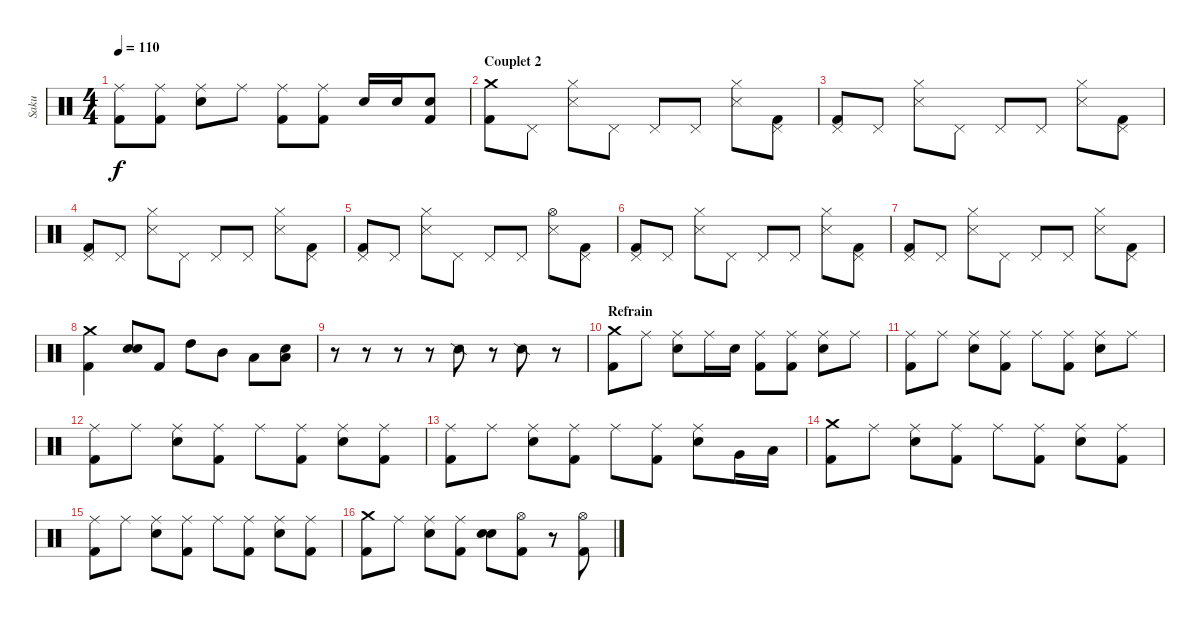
\track ("Saku" "Saku") {instrument percussion}
\staff {score}
\articulation defaults
\ts (4 4)
\tempo 110
\clef neutral
\ks c
("Ride (middle)" "Kick (hit) 2").8{dy f} ("Ride (middle)" "Kick (hit) 2").8 ("Ride (middle)" "Electric Snare (hit)").8 "Ride (middle)".8 ("Ride (middle)" "Kick (hit) 2").8 ("Ride (middle)" "Kick (hit) 2").8 "Electric Snare (hit)".16 "Electric Snare (hit)".16 ("Electric Snare (hit)" "Kick (hit) 2").8 |
\section ("" "Couplet 2")
("Crash medium (hit)" "Kick (hit) 2").8 "Pedal Hi-Hat (hit)".8 ("Hi-Hat (closed)" "Snare (side stick) 3").8 "Pedal Hi-Hat (hit)".8 "Pedal Hi-Hat (hit)".8 "Pedal Hi-Hat (hit)".8 ("Hi-Hat (closed)" "Snare (side stick) 3").8 ("Pedal Hi-Hat (hit)" "Kick (hit) 2").8 |
("Pedal Hi-Hat (hit)" "Kick (hit) 2").8 "Pedal Hi-Hat (hit)".8 ("Hi-Hat (closed)" "Snare (side stick) 3").8 "Pedal Hi-Hat (hit)".8 "Pedal Hi-Hat (hit)".8 "Pedal Hi-Hat (hit)".8 ("Hi-Hat (closed)" "Snare (side stick) 3").8 ("Pedal Hi-Hat (hit)" "Kick (hit) 2").8 |
("Pedal Hi-Hat (hit)" "Kick (hit) 2").8 "Pedal Hi-Hat (hit)".8 ("Hi-Hat (closed)" "Snare (side stick) 3").8 "Pedal Hi-Hat (hit)".8 "Pedal Hi-Hat (hit)".8 "Pedal Hi-Hat (hit)".8 ("Hi-Hat (closed)" "Snare (side stick) 3").8 ("Pedal Hi-Hat (hit)" "Kick (hit) 2").8 |
("Pedal Hi-Hat (hit)" "Kick (hit) 2").8 "Pedal Hi-Hat (hit)".8 ("Hi-Hat (closed)" "Snare (side stick) 3").8 "Pedal Hi-Hat (hit)".8 "Pedal Hi-Hat (hit)".8 "Pedal Hi-Hat (hit)".8 ("Hi-Hat (open)" "Snare (side stick) 3").8 ("Pedal Hi-Hat (hit)" "Kick (hit) 2").8 |
("Pedal Hi-Hat (hit)" "Kick (hit) 2").8 "Pedal Hi-Hat (hit)".8 ("Hi-Hat (closed)" "Snare (side stick) 3").8 "Pedal Hi-Hat (hit)".8 "Pedal Hi-Hat (hit)".8 "Pedal Hi-Hat (hit)".8 ("Hi-Hat (closed)" "Snare (side stick) 3").8 ("Pedal Hi-Hat (hit)" "Kick (hit) 2").8 |
("Pedal Hi-Hat (hit)" "Kick (hit) 2").8 "Pedal Hi-Hat (hit)".8 ("Hi-Hat (closed)" "Snare (side stick) 3").8 "Pedal Hi-Hat (hit)".8 "Pedal Hi-Hat (hit)".8 "Pedal Hi-Hat (hit)".8 ("Hi-Hat (closed)" "Snare (side stick) 3").8 ("Pedal Hi-Hat (hit)" "Kick (hit) 2").8 |
("Crash medium (hit)" "Kick (hit) 2").4 ("Electric Snare (hit)" "Electric Snare (hit)").8{bu 60} "Kick (hit) 2".8 "High Tom (hit)".8 "Mid Tom (hit)".8 "Low Tom (hit)".8 ("Electric Snare (hit)" "Low Floor Tom (hit)").8 |
r.8 r.8 r.8 r.8 "Snare (side stick) 2".8 r.8 "Snare (side stick) 2".8 r.8 |
\section ("" "Refrain")
("Crash medium (hit)" "Kick (hit) 2").8 "Ride (middle)".8 ("Ride (middle)" "Electric Snare (hit)").8 "Ride (middle)".16 "Electric Snare (hit)".16 ("Ride (middle)" "Kick (hit) 2").8 ("Ride (middle)" "Kick (hit) 2").8 ("Ride (middle)" "Electric Snare (hit)").8 "Ride (middle)".8 |
("Ride (middle)" "Kick (hit) 2").8 "Ride (middle)".8 ("Ride (middle)" "Electric Snare (hit)").8 ("Ride (middle)" "Kick (hit) 2").8 "Ride (middle)".8 ("Ride (middle)" "Kick (hit) 2").8 ("Ride (middle)" "Electric Snare (hit)").8 "Ride (middle)".8 |
("Ride (middle)" "Kick (hit) 2").8 "Ride (middle)".8 ("Ride (middle)" "Electric Snare (hit)").8 ("Ride (middle)" "Kick (hit) 2").8 "Ride (middle)".8 ("Ride (middle)" "Kick (hit) 2").8 ("Ride (middle)" "Electric Snare (hit)").8 ("Ride (middle)" "Kick (hit) 2").8 |
("Ride (middle)" "Kick (hit) 2").8 "Ride (middle)".8 ("Ride (middle)" "Electric Snare (hit)").8 ("Ride (middle)" "Kick (hit) 2").8 "Ride (middle)".8 ("Ride (middle)" "Kick (hit) 2").8 ("Ride (middle)" "Electric Snare (hit)").8 "Very Low Tom (hit)".16 "Low Floor Tom (hit)".16 |
("Crash medium (hit)" "Kick (hit) 2").8 "Ride (middle)".8 ("Ride (middle)" "Electric Snare (hit)").8 ("Ride (middle)" "Kick (hit) 2").8 "Ride (middle)".8 ("Ride (middle)" "Kick (hit) 2").8 ("Ride (middle)" "Electric Snare (hit)").8 ("Ride (middle)" "Kick (hit) 2").8 |
("Ride (middle)" "Kick (hit) 2").8 "Ride (middle)".8 ("Ride (middle)" "Electric Snare (hit)").8 ("Ride (middle)" "Kick (hit) 2").8 "Ride (middle)".8 ("Ride (middle)" "Kick (hit) 2").8 ("Ride (middle)" "Electric Snare (hit)").8 ("Ride (middle)" "Kick (hit) 2").8 |
("Crash medium (hit)" "Kick (hit) 2").8 "Ride (middle)".8 ("Ride (middle)" "Electric Snare (hit)").8 ("Ride (middle)" "Kick (hit) 2").8 ("Electric Snare (hit)" "Electric Snare (hit)").8{bu 60} ("Hi-Hat (open)" "Kick (hit) 2").8 r.8 ("Hi-Hat (open)" "Kick (hit) 2").8
